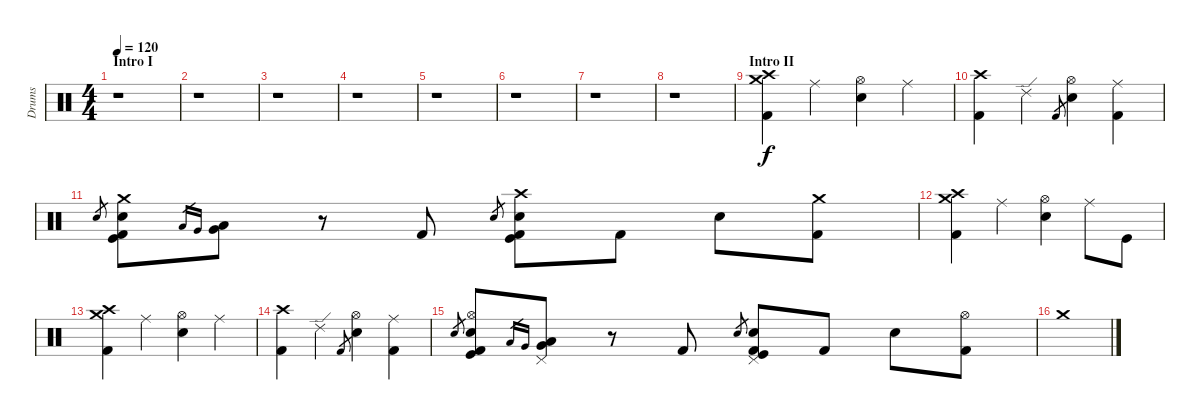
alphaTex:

\track ("Drums" "Drums") {instrument percussion}
\staff {score}
\articulation defaults
\ts (4 4)
\section ("" "Intro I")
\tempo 120
\clef neutral
\ks c
r.1{dy f} |
r.1 |
r.1 |
r.1 |
r.1 |
r.1 |
r.1 |
r.1 |
\section ("" "Intro II")
("Crash medium (hit)" "Crash high (hit)" "Kick (hit) 2").4 "Ride (middle)".4 ("Hi-Hat (open)" "Snare (hit) 2").4 "Ride (middle)".4 |
("Crash high (hit)" "Kick (hit) 2").4 "Ride (edge) 2".4 "Kick (hit) 2".8{gr} ("Hi-Hat (open)" "Snare (hit) 2").4 ("Ride (middle)" "Kick (hit) 2").4 |
"Snare (hit) 2".8{gr} ("Crash medium (hit)" "Snare (hit) 2" "Kick (hit)" "Kick (hit) 2").8 "Low Tom (hit)".16{gr} "Very Low Tom (hit)".16{gr} ("Very Low Tom (hit)" "Low Floor Tom (hit)").8 r.8 "Kick (hit) 2".8 "Snare (hit) 2".8{gr} ("Crash high (hit)" "Snare (hit) 2" "Kick (hit)" "Kick (hit) 2").8 "Kick (hit) 2".8 "Snare (hit) 2".8 ("Crash medium (hit)" "Kick (hit) 2").8 |
("Crash medium (hit)" "Crash high (hit)" "Kick (hit) 2").4 "Ride (middle)".4 ("Hi-Hat (open)" "Snare (hit) 2").4 "Ride (middle)".8 "Kick (hit)".8 |
("Crash medium (hit)" "Crash high (hit)" "Kick (hit) 2").4 "Ride (middle)".4 ("Hi-Hat (open)" "Snare (hit) 2").4 "Ride (middle)".4 |
("Crash high (hit)" "Kick (hit) 2").4 "Ride (edge) 2".4 "Kick (hit) 2".8{gr} ("Hi-Hat (open)" "Snare (hit) 2").4 ("Ride (middle)" "Kick (hit) 2").4 |
"Snare (hit) 2".8{gr} ("Hi-Hat (open)" "Snare (hit) 2" "Kick (hit)" "Kick (hit) 2").8 "Low Tom (hit)".16{gr} "Very Low Tom (hit)".16{gr} ("Pedal Hi-Hat (hit)" "Very Low Tom (hit)" "Low Floor Tom (hit)").8 r.8 "Kick (hit) 2".8 "Snare (hit) 2".8{gr} ("Pedal Hi-Hat (hit)" "Snare (hit) 2" "Kick (hit)" "Kick (hit) 2").8 "Kick (hit) 2".8 "Snare (hit) 2".8 ("Hi-Hat (open)" "Kick (hit) 2").8 |
"Crash medium (hit)".1
